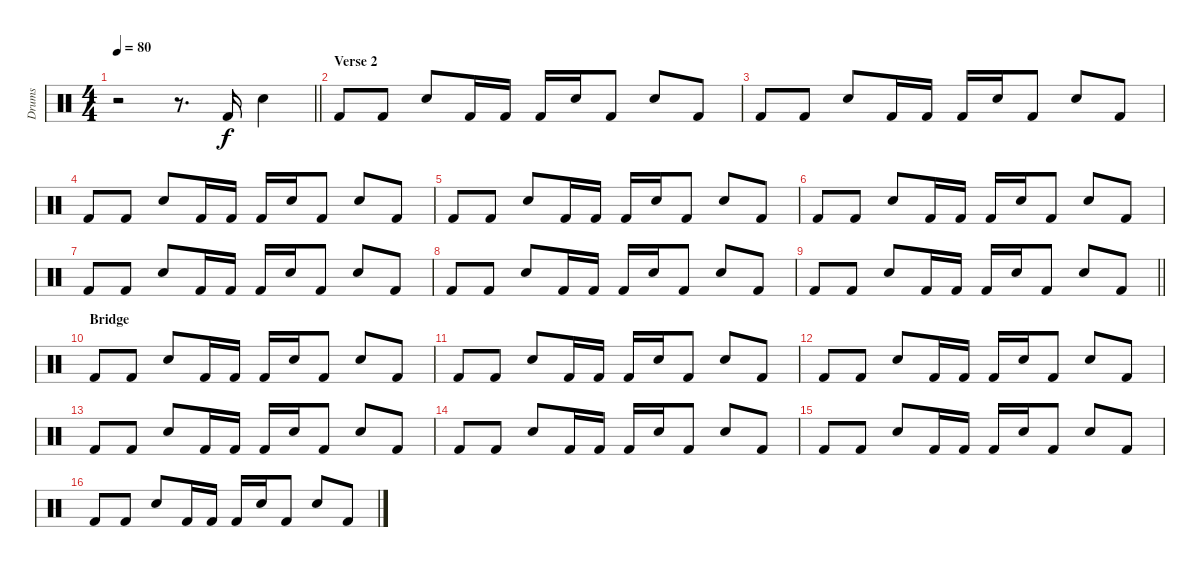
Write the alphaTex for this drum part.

\track ("Drums" "Drums") {instrument percussion}
\staff
\articulation defaults
\ts (4 4)
\tempo 80
\clef neutral
\barLineRight lightlight
\ks c
r.2{dy f} r.8{d} "Kick (hit) 2".16 "Snare (hit) 2".4 |
\section ("" "Verse 2")
"Kick (hit) 2".8 "Kick (hit) 2".8 "Snare (hit) 2".8 "Kick (hit) 2".16 "Kick (hit) 2".16 "Kick (hit) 2".16 "Snare (hit) 2".16 "Kick (hit) 2".8 "Snare (hit) 2".8 "Kick (hit) 2".8 |
"Kick (hit) 2".8 "Kick (hit) 2".8 "Snare (hit) 2".8 "Kick (hit) 2".16 "Kick (hit) 2".16 "Kick (hit) 2".16 "Snare (hit) 2".16 "Kick (hit) 2".8 "Snare (hit) 2".8 "Kick (hit) 2".8 |
"Kick (hit) 2".8 "Kick (hit) 2".8 "Snare (hit) 2".8 "Kick (hit) 2".16 "Kick (hit) 2".16 "Kick (hit) 2".16 "Snare (hit) 2".16 "Kick (hit) 2".8 "Snare (hit) 2".8 "Kick (hit) 2".8 |
"Kick (hit) 2".8 "Kick (hit) 2".8 "Snare (hit) 2".8 "Kick (hit) 2".16 "Kick (hit) 2".16 "Kick (hit) 2".16 "Snare (hit) 2".16 "Kick (hit) 2".8 "Snare (hit) 2".8 "Kick (hit) 2".8 |
"Kick (hit) 2".8 "Kick (hit) 2".8 "Snare (hit) 2".8 "Kick (hit) 2".16 "Kick (hit) 2".16 "Kick (hit) 2".16 "Snare (hit) 2".16 "Kick (hit) 2".8 "Snare (hit) 2".8 "Kick (hit) 2".8 |
"Kick (hit) 2".8 "Kick (hit) 2".8 "Snare (hit) 2".8 "Kick (hit) 2".16 "Kick (hit) 2".16 "Kick (hit) 2".16 "Snare (hit) 2".16 "Kick (hit) 2".8 "Snare (hit) 2".8 "Kick (hit) 2".8 |
"Kick (hit) 2".8 "Kick (hit) 2".8 "Snare (hit) 2".8 "Kick (hit) 2".16 "Kick (hit) 2".16 "Kick (hit) 2".16 "Snare (hit) 2".16 "Kick (hit) 2".8 "Snare (hit) 2".8 "Kick (hit) 2".8 |
\barLineRight lightlight "Kick (hit) 2".8 "Kick (hit) 2".8 "Snare (hit) 2".8 "Kick (hit) 2".16 "Kick (hit) 2".16 "Kick (hit) 2".16 "Snare (hit) 2".16 "Kick (hit) 2".8 "Snare (hit) 2".8 "Kick (hit) 2".8
|
\section ("" "Bridge")
"Kick (hit) 2".8 "Kick (hit) 2".8 "Snare (hit) 2".8 "Kick (hit) 2".16 "Kick (hit) 2".16 "Kick (hit) 2".16 "Snare (hit) 2".16 "Kick (hit) 2".8 "Snare (hit) 2".8 "Kick (hit) 2".8 |
"Kick (hit) 2".8 "Kick (hit) 2".8 "Snare (hit) 2".8 "Kick (hit) 2".16 "Kick (hit) 2".16 "Kick (hit) 2".16 "Snare (hit) 2".16 "Kick (hit) 2".8 "Snare (hit) 2".8 "Kick (hit) 2".8 |
"Kick (hit) 2".8 "Kick (hit) 2".8 "Snare (hit) 2".8 "Kick (hit) 2".16 "Kick (hit) 2".16 "Kick (hit) 2".16 "Snare (hit) 2".16 "Kick (hit) 2".8 "Snare (hit) 2".8 "Kick (hit) 2".8 |
"Kick (hit) 2".8 "Kick (hit) 2".8 "Snare (hit) 2".8 "Kick (hit) 2".16 "Kick (hit) 2".16 "Kick (hit) 2".16 "Snare (hit) 2".16 "Kick (hit) 2".8 "Snare (hit) 2".8 "Kick (hit) 2".8 |
"Kick (hit) 2".8 "Kick (hit) 2".8 "Snare (hit) 2".8 "Kick (hit) 2".16 "Kick (hit) 2".16 "Kick (hit) 2".16 "Snare (hit) 2".16 "Kick (hit) 2".8 "Snare (hit) 2".8 "Kick (hit) 2".8 |
"Kick (hit) 2".8 "Kick (hit) 2".8 "Snare (hit) 2".8 "Kick (hit) 2".16 "Kick (hit) 2".16 "Kick (hit) 2".16 "Snare (hit) 2".16 "Kick (hit) 2".8 "Snare (hit) 2".8 "Kick (hit) 2".8 |
"Kick (hit) 2".8 "Kick (hit) 2".8 "Snare (hit) 2".8 "Kick (hit) 2".16 "Kick (hit) 2".16 "Kick (hit) 2".16 "Snare (hit) 2".16 "Kick (hit) 2".8 "Snare (hit) 2".8 "Kick (hit) 2".8
